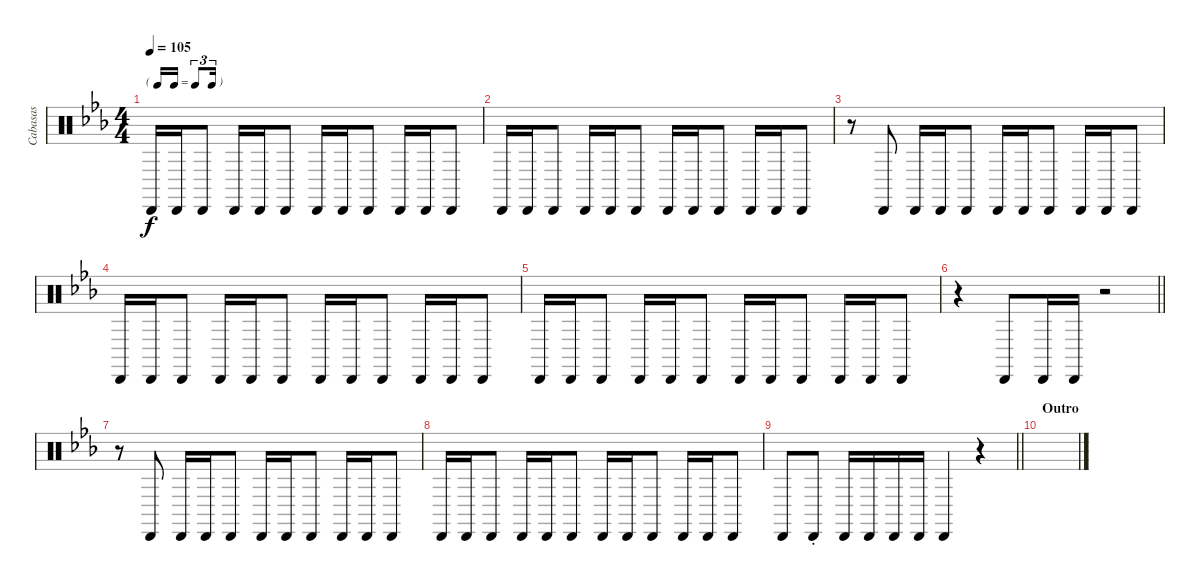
\track ("Cabasas" "Cabasas") {instrument percussion}
\staff {score}
\articulation defaults
\ts (4 4)
\tf triplet16th
\tempo 105
\clef neutral
\ks eb "Cabasa (hit)".16{dy f} "Cabasa (hit)".16 "Cabasa (hit)".8 "Cabasa (hit)".16 "Cabasa (hit)".16 "Cabasa (hit)".8 "Cabasa (hit)".16 "Cabasa (hit)".16 "Cabasa (hit)".8 "Cabasa (hit)".16 "Cabasa (hit)".16 "Cabasa (hit)".8
|
"Cabasa (hit)".16 "Cabasa (hit)".16 "Cabasa (hit)".8 "Cabasa (hit)".16 "Cabasa (hit)".16 "Cabasa (hit)".8 "Cabasa (hit)".16 "Cabasa (hit)".16 "Cabasa (hit)".8 "Cabasa (hit)".16 "Cabasa (hit)".16 "Cabasa (hit)".8 |
r.8 "Cabasa (hit)".8 "Cabasa (hit)".16 "Cabasa (hit)".16 "Cabasa (hit)".8 "Cabasa (hit)".16 "Cabasa (hit)".16 "Cabasa (hit)".8 "Cabasa (hit)".16 "Cabasa (hit)".16 "Cabasa (hit)".8 |
"Cabasa (hit)".16 "Cabasa (hit)".16 "Cabasa (hit)".8 "Cabasa (hit)".16 "Cabasa (hit)".16 "Cabasa (hit)".8 "Cabasa (hit)".16 "Cabasa (hit)".16 "Cabasa (hit)".8 "Cabasa (hit)".16 "Cabasa (hit)".16 "Cabasa (hit)".8 |
"Cabasa (hit)".16 "Cabasa (hit)".16 "Cabasa (hit)".8 "Cabasa (hit)".16 "Cabasa (hit)".16 "Cabasa (hit)".8 "Cabasa (hit)".16 "Cabasa (hit)".16 "Cabasa (hit)".8 "Cabasa (hit)".16 "Cabasa (hit)".16 "Cabasa (hit)".8 |
\barLineRight lightlight
r.4 "Cabasa (hit)".8 "Cabasa (hit)".16 "Cabasa (hit)".16 r.2 |
r.8 "Cabasa (hit)".8 "Cabasa (hit)".16 "Cabasa (hit)".16 "Cabasa (hit)".8 "Cabasa (hit)".16 "Cabasa (hit)".16 "Cabasa (hit)".8 "Cabasa (hit)".16 "Cabasa (hit)".16 "Cabasa (hit)".8 |
"Cabasa (hit)".16 "Cabasa (hit)".16 "Cabasa (hit)".8 "Cabasa (hit)".16 "Cabasa (hit)".16 "Cabasa (hit)".8 "Cabasa (hit)".16 "Cabasa (hit)".16 "Cabasa (hit)".8 "Cabasa (hit)".16 "Cabasa (hit)".16 "Cabasa (hit)".8 |
\barLineRight lightlight "Cabasa (hit)".8 "Cabasa (hit)"{st}.8 "Cabasa (hit)".16 "Cabasa (hit)".16 "Cabasa (hit)".16 "Cabasa (hit)".16 "Cabasa (hit)".4
r.4 |
\section ("" "Outro")
